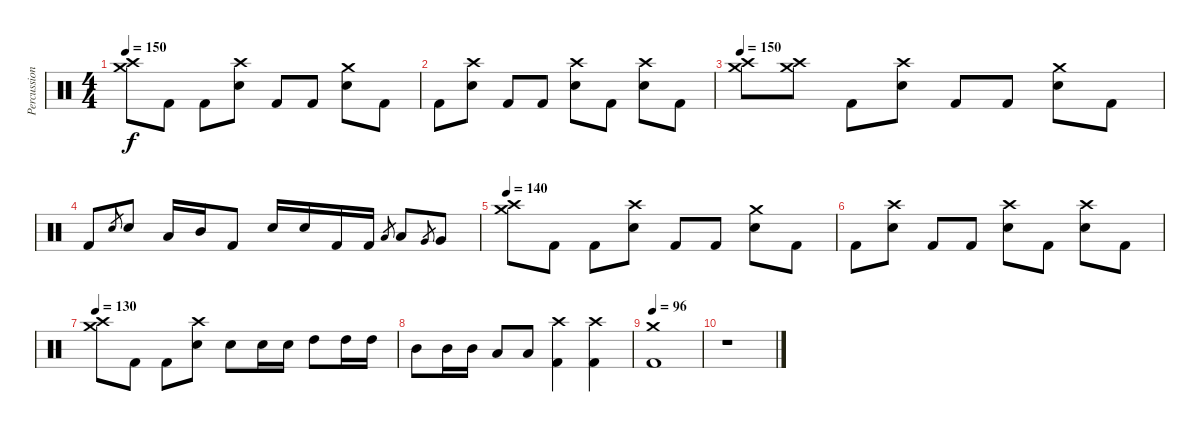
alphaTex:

\track ("Percussion" "Percussion") {instrument percussion}
\staff {score}
\articulation defaults
\ts (4 4)
\tempo 150
\clef neutral
\ks c
("Crash medium (hit)" "Crash high (hit)").8{dy f} "Kick (hit) 2".8 "Kick (hit) 2".8 ("Crash high (hit)" "Snare (hit) 2").8 "Kick (hit) 2".8 "Kick (hit) 2".8 ("Crash medium (hit)" "Snare (hit) 2").8 "Kick (hit) 2".8 |
"Kick (hit) 2".8 ("Crash high (hit)" "Snare (hit) 2").8 "Kick (hit) 2".8 "Kick (hit) 2".8 ("Crash high (hit)" "Snare (hit) 2").8 "Kick (hit) 2".8 ("Crash high (hit)" "Snare (hit) 2").8 "Kick (hit) 2".8 |
\tempo 150
("Crash medium (hit)" "Crash high (hit)").8 ("Crash medium (hit)" "Crash high (hit)").8 "Kick (hit) 2".8 ("Crash high (hit)" "Snare (hit) 2").8 "Kick (hit) 2".8 "Kick (hit) 2".8 ("Crash medium (hit)" "Snare (hit) 2").8 "Kick (hit) 2".8 |
"Kick (hit) 2".8 "Snare (hit) 2".8{gr} "Snare (hit) 2".8 "Low Tom (hit)".16 "Mid Tom (hit)".16 "Kick (hit) 2".8 "Snare (hit) 2".16 "Snare (hit) 2".16 "Kick (hit) 2".16 "Kick (hit) 2".16 "Low Tom (hit)".8{gr} "Low Tom (hit)".8 "Very Low Tom (hit)".8{gr} "Very Low Tom (hit)".8 |
\tempo 140
("Crash medium (hit)" "Crash high (hit)").8 "Kick (hit) 2".8 "Kick (hit) 2".8 ("Crash high (hit)" "Snare (hit) 2").8 "Kick (hit) 2".8 "Kick (hit) 2".8 ("Crash medium (hit)" "Snare (hit) 2").8 "Kick (hit) 2".8 |
"Kick (hit) 2".8 ("Crash high (hit)" "Snare (hit) 2").8 "Kick (hit) 2".8 "Kick (hit) 2".8 ("Crash high (hit)" "Snare (hit) 2").8 "Kick (hit) 2".8 ("Crash high (hit)" "Snare (hit) 2").8 "Kick (hit) 2".8 |
\tempo 130
("Crash medium (hit)" "Crash high (hit)").8 "Kick (hit) 2".8 "Kick (hit) 2".8 ("Crash high (hit)" "Snare (hit) 2").8 "Snare (hit) 2".8 "Snare (hit) 2".16 "Snare (hit) 2".16 "High Tom (hit)".8 "High Tom (hit)".16 "High Tom (hit)".16 |
"Mid Tom (hit)".8 "Mid Tom (hit)".16 "Mid Tom (hit)".16 "Low Tom (hit)".8 "Low Tom (hit)".8 ("Crash high (hit)" "Kick (hit) 2").4 ("Crash high (hit)" "Kick (hit) 2").4 |
\tempo 96
("Crash medium (hit)" "Kick (hit) 2").1 |
r.1
